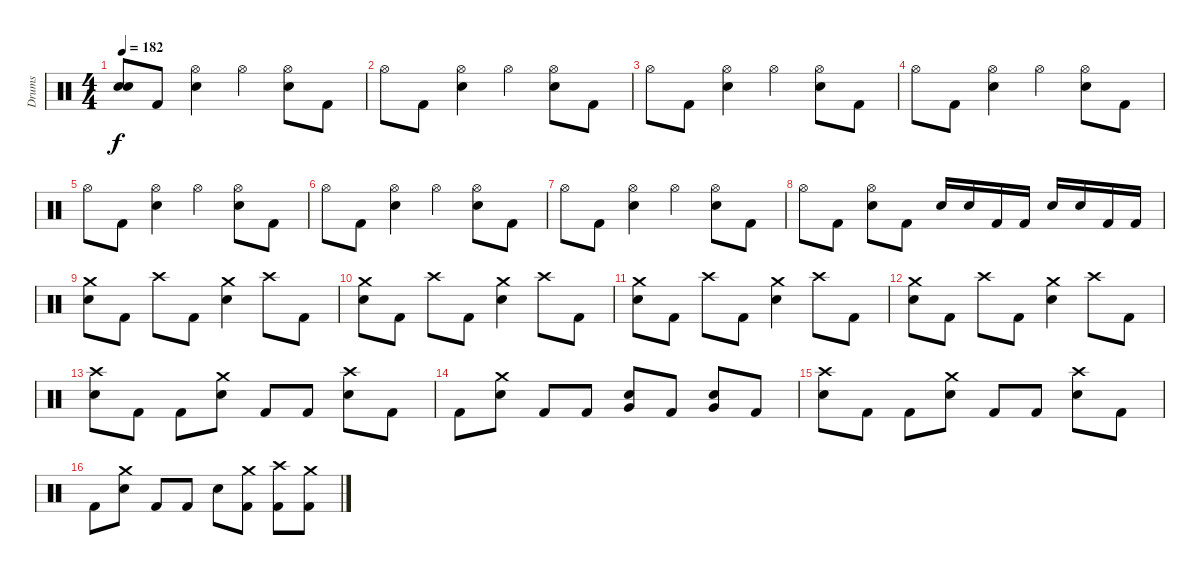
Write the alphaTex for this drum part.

\track ("Drums" "Drums") {instrument percussion}
\staff {score}
\articulation defaults
\ts (4 4)
\tempo 182
\clef neutral
\ks c
("Snare (hit)"{t} "Snare (hit)"{t}).8{dy f} "Kick (hit) 2".8 ("Hi-Hat (open)" "Electric Snare (hit)").4 "Hi-Hat (open)".4 ("Hi-Hat (open)" "Electric Snare (hit)").8 "Kick (hit) 2".8 |
"Hi-Hat (open)".8 "Kick (hit) 2".8 ("Hi-Hat (open)" "Electric Snare (hit)").4 "Hi-Hat (open)".4 ("Hi-Hat (open)" "Electric Snare (hit)").8 "Kick (hit) 2".8 |
"Hi-Hat (open)".8 "Kick (hit) 2".8 ("Hi-Hat (open)" "Electric Snare (hit)").4 "Hi-Hat (open)".4 ("Hi-Hat (open)" "Electric Snare (hit)").8 "Kick (hit) 2".8 |
"Hi-Hat (open)".8 "Kick (hit) 2".8 ("Hi-Hat (open)" "Electric Snare (hit)").4 "Hi-Hat (open)".4 ("Hi-Hat (open)" "Electric Snare (hit)").8 "Kick (hit) 2".8 |
"Hi-Hat (open)".8 "Kick (hit) 2".8 ("Hi-Hat (open)" "Electric Snare (hit)").4 "Hi-Hat (open)".4 ("Hi-Hat (open)" "Electric Snare (hit)").8 "Kick (hit) 2".8 |
"Hi-Hat (open)".8 "Kick (hit) 2".8 ("Hi-Hat (open)" "Electric Snare (hit)").4 "Hi-Hat (open)".4 ("Hi-Hat (open)" "Electric Snare (hit)").8 "Kick (hit) 2".8 |
"Hi-Hat (open)".8 "Kick (hit) 2".8 ("Hi-Hat (open)" "Electric Snare (hit)").4 "Hi-Hat (open)".4 ("Hi-Hat (open)" "Electric Snare (hit)").8 "Kick (hit) 2".8 |
"Hi-Hat (open)".8 "Kick (hit) 2".8 ("Hi-Hat (open)" "Electric Snare (hit)").8 "Kick (hit) 2".8 "Electric Snare (hit)".16 "Electric Snare (hit)".16 "Kick (hit) 2".16 "Kick (hit) 2".16 "Electric Snare (hit)".16 "Electric Snare (hit)".16 "Kick (hit) 2".16 "Kick (hit) 2".16 |
("Crash medium (hit)" "Electric Snare (hit)").8 "Kick (hit) 2".8 "Crash high (hit)".8 "Kick (hit) 2".8 ("Crash medium (hit)" "Electric Snare (hit)").4 "Crash high (hit)".8 "Kick (hit) 2".8 |
("Crash medium (hit)" "Electric Snare (hit)").8 "Kick (hit) 2".8 "Crash high (hit)".8 "Kick (hit) 2".8 ("Crash medium (hit)" "Electric Snare (hit)").4 "Crash high (hit)".8 "Kick (hit) 2".8 |
("Crash medium (hit)" "Electric Snare (hit)").8 "Kick (hit) 2".8 "Crash high (hit)".8 "Kick (hit) 2".8 ("Crash medium (hit)" "Electric Snare (hit)").4 "Crash high (hit)".8 "Kick (hit) 2".8 |
("Crash medium (hit)" "Electric Snare (hit)").8 "Kick (hit) 2".8 "Crash high (hit)".8 "Kick (hit) 2".8 ("Crash medium (hit)" "Electric Snare (hit)").4 "Crash high (hit)".8 "Kick (hit) 2".8 |
("Crash high (hit)" "Electric Snare (hit)").8 "Kick (hit) 2".8 "Kick (hit) 2".8 ("Crash medium (hit)" "Electric Snare (hit)").8 "Kick (hit) 2".8 "Kick (hit) 2".8 ("Crash high (hit)" "Electric Snare (hit)").8 "Kick (hit) 2".8 |
"Kick (hit) 2".8 ("Crash medium (hit)" "Electric Snare (hit)").8 "Kick (hit) 2".8 "Kick (hit) 2".8 ("Very Low Tom (hit)" "Electric Snare (hit)").8 "Kick (hit) 2".8 ("Very Low Tom (hit)" "Electric Snare (hit)").8 "Kick (hit) 2".8 |
("Crash high (hit)" "Electric Snare (hit)").8 "Kick (hit) 2".8 "Kick (hit) 2".8 ("Crash medium (hit)" "Electric Snare (hit)").8 "Kick (hit) 2".8 "Kick (hit) 2".8 ("Crash high (hit)" "Electric Snare (hit)").8 "Kick (hit) 2".8 |
"Kick (hit) 2".8 ("Crash medium (hit)" "Electric Snare (hit)").8 "Kick (hit) 2".8 "Kick (hit) 2".8 "Electric Snare (hit)".8 ("Crash medium (hit)" "Kick (hit) 2").8 ("Crash high (hit)" "Kick (hit) 2").8 ("Crash medium (hit)" "Kick (hit) 2").8
